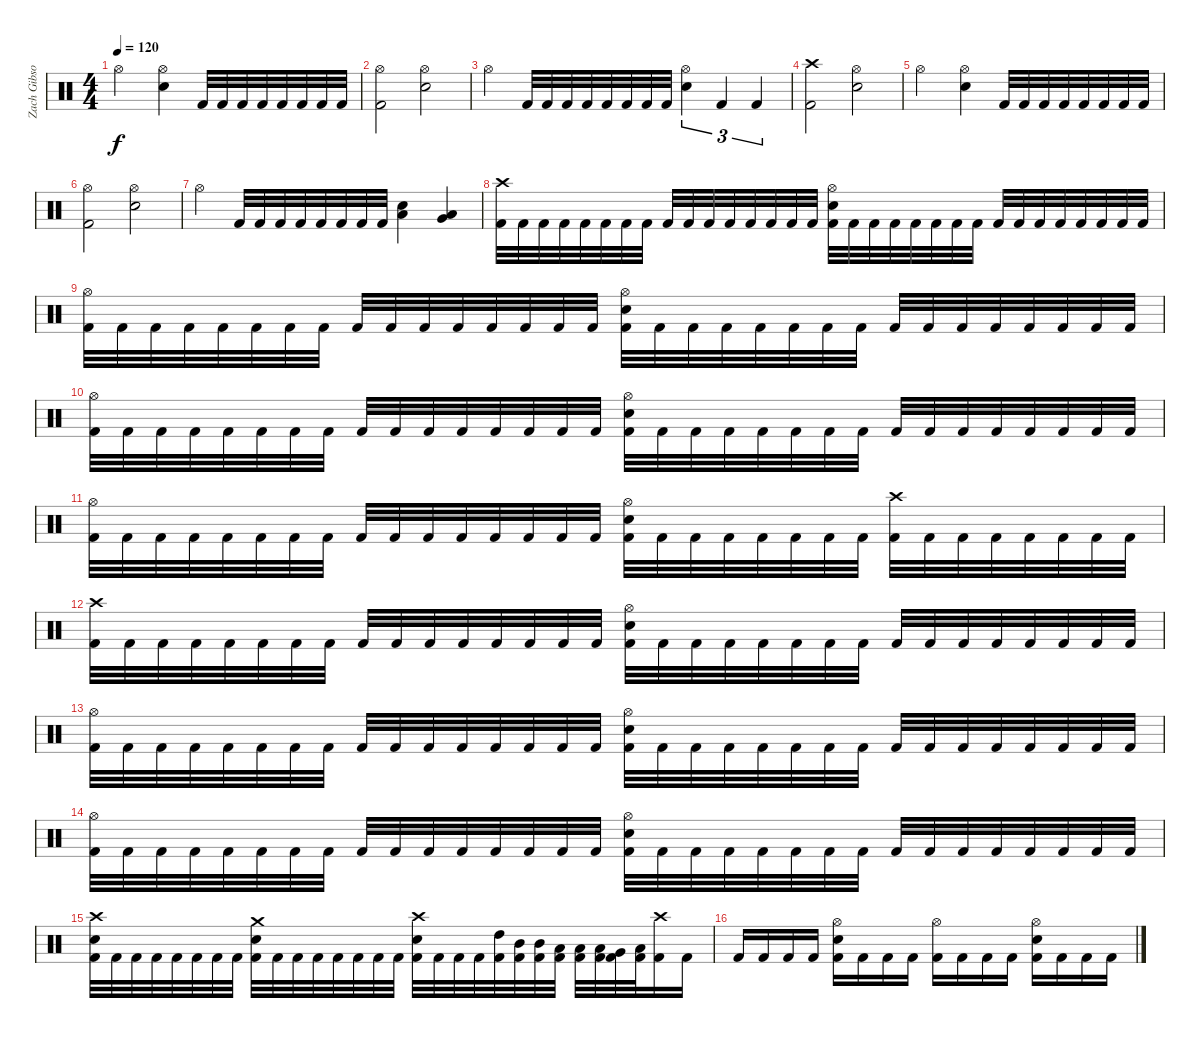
\track ("Zach Gibson (Drums)" "Zach Gibso") {instrument percussion}
\staff {score}
\articulation defaults
\ts (4 4)
\tempo 120
\clef neutral
\ks c "Hi-Hat (open)".2{dy f}
("Hi-Hat (open)" "Snare (hit) 2").4 "Kick (hit) 2".32 "Kick (hit) 2".32 "Kick (hit) 2".32 "Kick (hit) 2".32 "Kick (hit) 2".32 "Kick (hit) 2".32 "Kick (hit) 2".32 "Kick (hit) 2".32 |
("Hi-Hat (open)" "Kick (hit) 2").2 ("Hi-Hat (open)" "Snare (hit) 2").2 |
"Hi-Hat (open)".4 "Kick (hit) 2".32 "Kick (hit) 2".32 "Kick (hit) 2".32 "Kick (hit) 2".32 "Kick (hit) 2".32 "Kick (hit) 2".32 "Kick (hit) 2".32 "Kick (hit) 2".32 ("Hi-Hat (open)" "Snare (hit) 2").4{tu (3 2)} "Kick (hit) 2".4{tu (3 2)} "Kick (hit) 2".4{tu (3 2)} |
("Crash high (hit)" "Kick (hit) 2").2 ("Hi-Hat (open)" "Snare (hit) 2").2 |
"Hi-Hat (open)".2 ("Hi-Hat (open)" "Snare (hit) 2").4 "Kick (hit) 2".32 "Kick (hit) 2".32 "Kick (hit) 2".32 "Kick (hit) 2".32 "Kick (hit) 2".32 "Kick (hit) 2".32 "Kick (hit) 2".32 "Kick (hit) 2".32 |
("Hi-Hat (open)" "Kick (hit) 2").2 ("Hi-Hat (open)" "Snare (hit) 2").2 |
"Hi-Hat (open)".4 "Kick (hit) 2".32 "Kick (hit) 2".32 "Kick (hit) 2".32 "Kick (hit) 2".32 "Kick (hit) 2".32 "Kick (hit) 2".32 "Kick (hit) 2".32 "Kick (hit) 2".32 ("Low Tom (hit)" "Snare (hit) 2").4 ("Low Floor Tom (hit)" "Very Low Tom (hit)").4 |
("Crash high (hit)" "Kick (hit) 2").32 "Kick (hit) 2".32 "Kick (hit) 2".32 "Kick (hit) 2".32 "Kick (hit) 2".32 "Kick (hit) 2".32 "Kick (hit) 2".32 "Kick (hit) 2".32 "Kick (hit) 2".32 "Kick (hit) 2".32 "Kick (hit) 2".32 "Kick (hit) 2".32 "Kick (hit) 2".32 "Kick (hit) 2".32 "Kick (hit) 2".32 "Kick (hit) 2".32 ("Snare (hit) 2" "Hi-Hat (open)" "Kick (hit) 2").32 "Kick (hit) 2".32 "Kick (hit) 2".32 "Kick (hit) 2".32 "Kick (hit) 2".32 "Kick (hit) 2".32 "Kick (hit) 2".32 "Kick (hit) 2".32 "Kick (hit) 2".32 "Kick (hit) 2".32 "Kick (hit) 2".32 "Kick (hit) 2".32 "Kick (hit) 2".32 "Kick (hit) 2".32 "Kick (hit) 2".32 "Kick (hit) 2".32 |
("Hi-Hat (open)" "Kick (hit) 2").32 "Kick (hit) 2".32 "Kick (hit) 2".32 "Kick (hit) 2".32 "Kick (hit) 2".32 "Kick (hit) 2".32 "Kick (hit) 2".32 "Kick (hit) 2".32 "Kick (hit) 2".32 "Kick (hit) 2".32 "Kick (hit) 2".32 "Kick (hit) 2".32 "Kick (hit) 2".32 "Kick (hit) 2".32 "Kick (hit) 2".32 "Kick (hit) 2".32 ("Snare (hit) 2" "Hi-Hat (open)" "Kick (hit) 2").32 "Kick (hit) 2".32 "Kick (hit) 2".32 "Kick (hit) 2".32 "Kick (hit) 2".32 "Kick (hit) 2".32 "Kick (hit) 2".32 "Kick (hit) 2".32 "Kick (hit) 2".32 "Kick (hit) 2".32 "Kick (hit) 2".32 "Kick (hit) 2".32 "Kick (hit) 2".32 "Kick (hit) 2".32 "Kick (hit) 2".32 "Kick (hit) 2".32 |
("Hi-Hat (open)" "Kick (hit) 2").32 "Kick (hit) 2".32 "Kick (hit) 2".32 "Kick (hit) 2".32 "Kick (hit) 2".32 "Kick (hit) 2".32 "Kick (hit) 2".32 "Kick (hit) 2".32 "Kick (hit) 2".32 "Kick (hit) 2".32 "Kick (hit) 2".32 "Kick (hit) 2".32 "Kick (hit) 2".32 "Kick (hit) 2".32 "Kick (hit) 2".32 "Kick (hit) 2".32 ("Snare (hit) 2" "Hi-Hat (open)" "Kick (hit) 2").32 "Kick (hit) 2".32 "Kick (hit) 2".32 "Kick (hit) 2".32 "Kick (hit) 2".32 "Kick (hit) 2".32 "Kick (hit) 2".32 "Kick (hit) 2".32 "Kick (hit) 2".32 "Kick (hit) 2".32 "Kick (hit) 2".32 "Kick (hit) 2".32 "Kick (hit) 2".32 "Kick (hit) 2".32 "Kick (hit) 2".32 "Kick (hit) 2".32 |
("Hi-Hat (open)" "Kick (hit) 2").32 "Kick (hit) 2".32 "Kick (hit) 2".32 "Kick (hit) 2".32 "Kick (hit) 2".32 "Kick (hit) 2".32 "Kick (hit) 2".32 "Kick (hit) 2".32 "Kick (hit) 2".32 "Kick (hit) 2".32 "Kick (hit) 2".32 "Kick (hit) 2".32 "Kick (hit) 2".32 "Kick (hit) 2".32 "Kick (hit) 2".32 "Kick (hit) 2".32 ("Snare (hit) 2" "Hi-Hat (open)" "Kick (hit) 2").32 "Kick (hit) 2".32 "Kick (hit) 2".32 "Kick (hit) 2".32 "Kick (hit) 2".32 "Kick (hit) 2".32 "Kick (hit) 2".32 "Kick (hit) 2".32 ("Crash high (hit)" "Kick (hit) 2").32 "Kick (hit) 2".32 "Kick (hit) 2".32 "Kick (hit) 2".32 "Kick (hit) 2".32 "Kick (hit) 2".32 "Kick (hit) 2".32 "Kick (hit) 2".32 |
("Crash high (hit)" "Kick (hit) 2").32 "Kick (hit) 2".32 "Kick (hit) 2".32 "Kick (hit) 2".32 "Kick (hit) 2".32 "Kick (hit) 2".32 "Kick (hit) 2".32 "Kick (hit) 2".32 "Kick (hit) 2".32 "Kick (hit) 2".32 "Kick (hit) 2".32 "Kick (hit) 2".32 "Kick (hit) 2".32 "Kick (hit) 2".32 "Kick (hit) 2".32 "Kick (hit) 2".32 ("Snare (hit) 2" "Hi-Hat (open)" "Kick (hit) 2").32 "Kick (hit) 2".32 "Kick (hit) 2".32 "Kick (hit) 2".32 "Kick (hit) 2".32 "Kick (hit) 2".32 "Kick (hit) 2".32 "Kick (hit) 2".32 "Kick (hit) 2".32 "Kick (hit) 2".32 "Kick (hit) 2".32 "Kick (hit) 2".32 "Kick (hit) 2".32 "Kick (hit) 2".32 "Kick (hit) 2".32 "Kick (hit) 2".32 |
("Hi-Hat (open)" "Kick (hit) 2").32 "Kick (hit) 2".32 "Kick (hit) 2".32 "Kick (hit) 2".32 "Kick (hit) 2".32 "Kick (hit) 2".32 "Kick (hit) 2".32 "Kick (hit) 2".32 "Kick (hit) 2".32 "Kick (hit) 2".32 "Kick (hit) 2".32 "Kick (hit) 2".32 "Kick (hit) 2".32 "Kick (hit) 2".32 "Kick (hit) 2".32 "Kick (hit) 2".32 ("Snare (hit) 2" "Hi-Hat (open)" "Kick (hit) 2").32 "Kick (hit) 2".32 "Kick (hit) 2".32 "Kick (hit) 2".32 "Kick (hit) 2".32 "Kick (hit) 2".32 "Kick (hit) 2".32 "Kick (hit) 2".32 "Kick (hit) 2".32 "Kick (hit) 2".32 "Kick (hit) 2".32 "Kick (hit) 2".32 "Kick (hit) 2".32 "Kick (hit) 2".32 "Kick (hit) 2".32 "Kick (hit) 2".32 |
("Hi-Hat (open)" "Kick (hit) 2").32 "Kick (hit) 2".32 "Kick (hit) 2".32 "Kick (hit) 2".32 "Kick (hit) 2".32 "Kick (hit) 2".32 "Kick (hit) 2".32 "Kick (hit) 2".32 "Kick (hit) 2".32 "Kick (hit) 2".32 "Kick (hit) 2".32 "Kick (hit) 2".32 "Kick (hit) 2".32 "Kick (hit) 2".32 "Kick (hit) 2".32 "Kick (hit) 2".32 ("Snare (hit) 2" "Hi-Hat (open)" "Kick (hit) 2").32 "Kick (hit) 2".32 "Kick (hit) 2".32 "Kick (hit) 2".32 "Kick (hit) 2".32 "Kick (hit) 2".32 "Kick (hit) 2".32 "Kick (hit) 2".32 "Kick (hit) 2".32 "Kick (hit) 2".32 "Kick (hit) 2".32 "Kick (hit) 2".32 "Kick (hit) 2".32 "Kick (hit) 2".32 "Kick (hit) 2".32 "Kick (hit) 2".32 |
("Crash high (hit)" "Snare (hit) 2" "Kick (hit) 2").32 "Kick (hit) 2".32 "Kick (hit) 2".32 "Kick (hit) 2".32 "Kick (hit) 2".32 "Kick (hit) 2".32 "Kick (hit) 2".32 "Kick (hit) 2".32 ("Crash medium (hit)" "Snare (hit) 2" "Kick (hit) 2").32 "Kick (hit) 2".32 "Kick (hit) 2".32 "Kick (hit) 2".32 "Kick (hit) 2".32 "Kick (hit) 2".32 "Kick (hit) 2".32 "Kick (hit) 2".32 ("Snare (hit) 2" "Crash high (hit)" "Kick (hit) 2").32 "Kick (hit) 2".32 "Kick (hit) 2".32 "Kick (hit) 2".32 ("High Tom (hit)" "Kick (hit) 2").32 ("Mid Tom (hit)" "Kick (hit) 2").32 ("Mid Tom (hit)" "Kick (hit) 2").32 ("Low Tom (hit)" "Kick (hit) 2").32 ("Low Tom (hit)" "Kick (hit) 2").32 ("Low Tom (hit)" "Kick (hit) 2").32 ("Very Low Tom (hit)" "Kick (hit) 2").32 ("Low Floor Tom (hit)" "Kick (hit) 2").32 ("Crash high (hit)" "Kick (hit) 2").16 "Kick (hit) 2".16 |
"Kick (hit) 2".16 "Kick (hit) 2".16 "Kick (hit) 2".16 "Kick (hit) 2".16 ("Hi-Hat (open)" "Snare (hit) 2" "Kick (hit) 2").16 "Kick (hit) 2".16 "Kick (hit) 2".16 "Kick (hit) 2".16 ("Hi-Hat (open)" "Kick (hit) 2").16 "Kick (hit) 2".16 "Kick (hit) 2".16 "Kick (hit) 2".16 ("Hi-Hat (open)" "Snare (hit) 2" "Kick (hit) 2").16 "Kick (hit) 2".16 "Kick (hit) 2".16 "Kick (hit) 2".16
